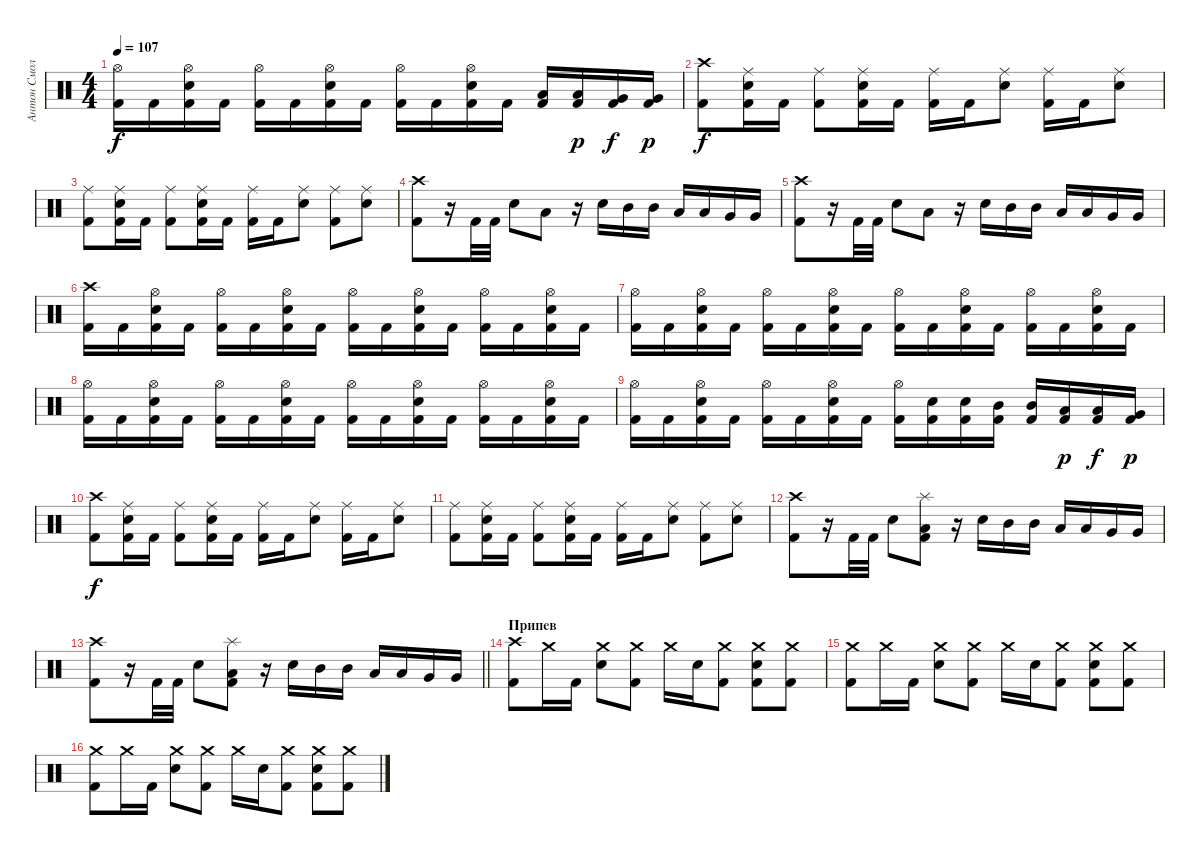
\track ("Антон Смольянин" "Антон Смол") {instrument percussion}
\staff {score}
\articulation defaults
\ts (4 4)
\tempo 107
\clef neutral
\ks c
("Hi-Hat (open)" "Kick (hit) 2").16{dy f} "Kick (hit) 2".16 ("Hi-Hat (open)" "Electric Snare (hit)" "Kick (hit) 2").16 "Kick (hit) 2".16 ("Hi-Hat (open)" "Kick (hit) 2").16 "Kick (hit) 2".16 ("Hi-Hat (open)" "Electric Snare (hit)" "Kick (hit) 2").16 "Kick (hit) 2".16 ("Hi-Hat (open)" "Kick (hit) 2").16 "Kick (hit) 2".16 ("Hi-Hat (open)" "Electric Snare (hit)" "Kick (hit) 2").16 "Kick (hit) 2".16 ("Low Tom (hit)" "Kick (hit) 2").16 ("Low Tom (hit)" "Kick (hit) 2").16{dy p} ("Very Low Tom (hit)" "Kick (hit) 2").16{dy f} ("Very Low Tom (hit)" "Kick (hit) 2").16{dy p} |
("Crash high (hit)" "Kick (hit) 2").8{dy f} ("Ride (middle)" "Electric Snare (hit)" "Kick (hit) 2").16 "Kick (hit) 2".16 ("Ride (middle)" "Kick (hit) 2").8 ("Ride (middle)" "Electric Snare (hit)" "Kick (hit) 2").16 "Kick (hit) 2".16 ("Ride (middle)" "Kick (hit) 2").16 "Kick (hit) 2".16 ("Ride (middle)" "Electric Snare (hit)").8 ("Ride (middle)" "Kick (hit) 2").16 "Kick (hit) 2".16 ("Ride (middle)" "Electric Snare (hit)").8 |
("Ride (middle)" "Kick (hit) 2").8 ("Ride (middle)" "Electric Snare (hit)" "Kick (hit) 2").16 "Kick (hit) 2".16 ("Ride (middle)" "Kick (hit) 2").8 ("Ride (middle)" "Electric Snare (hit)" "Kick (hit) 2").16 "Kick (hit) 2".16 ("Ride (middle)" "Kick (hit) 2").16 "Kick (hit) 2".16 ("Ride (middle)" "Electric Snare (hit)").8 ("Ride (middle)" "Kick (hit) 2").8 ("Ride (middle)" "Electric Snare (hit)").8 |
("Crash high (hit)" "Kick (hit) 2").8 r.16 "Kick (hit) 2".32 "Kick (hit) 2".32 "Electric Snare (hit)".8 "Low Tom (hit)".8 r.16 "Electric Snare (hit)".16 "Mid Tom (hit)".16 "Mid Tom (hit)".16 "Low Tom (hit)".16 "Low Tom (hit)".16 "Very Low Tom (hit)".16 "Very Low Tom (hit)".16 |
("Crash high (hit)" "Kick (hit) 2").8 r.16 "Kick (hit) 2".32 "Kick (hit) 2".32 "Electric Snare (hit)".8 "Low Tom (hit)".8 r.16 "Electric Snare (hit)".16 "Mid Tom (hit)".16 "Mid Tom (hit)".16 "Low Tom (hit)".16 "Low Tom (hit)".16 "Very Low Tom (hit)".16 "Very Low Tom (hit)".16 |
("Crash high (hit)" "Kick (hit) 2").16 "Kick (hit) 2".16 ("Hi-Hat (open)" "Electric Snare (hit)" "Kick (hit) 2").16 "Kick (hit) 2".16 ("Hi-Hat (open)" "Kick (hit) 2").16 "Kick (hit) 2".16 ("Hi-Hat (open)" "Electric Snare (hit)" "Kick (hit) 2").16 "Kick (hit) 2".16 ("Hi-Hat (open)" "Kick (hit) 2").16 "Kick (hit) 2".16 ("Hi-Hat (open)" "Electric Snare (hit)" "Kick (hit) 2").16 "Kick (hit) 2".16 ("Hi-Hat (open)" "Kick (hit) 2").16 "Kick (hit) 2".16 ("Hi-Hat (open)" "Electric Snare (hit)" "Kick (hit) 2").16 "Kick (hit) 2".16 |
("Hi-Hat (open)" "Kick (hit) 2").16 "Kick (hit) 2".16 ("Hi-Hat (open)" "Electric Snare (hit)" "Kick (hit) 2").16 "Kick (hit) 2".16 ("Hi-Hat (open)" "Kick (hit) 2").16 "Kick (hit) 2".16 ("Hi-Hat (open)" "Electric Snare (hit)" "Kick (hit) 2").16 "Kick (hit) 2".16 ("Hi-Hat (open)" "Kick (hit) 2").16 "Kick (hit) 2".16 ("Hi-Hat (open)" "Electric Snare (hit)" "Kick (hit) 2").16 "Kick (hit) 2".16 ("Hi-Hat (open)" "Kick (hit) 2").16 "Kick (hit) 2".16 ("Hi-Hat (open)" "Electric Snare (hit)" "Kick (hit) 2").16 "Kick (hit) 2".16 |
("Hi-Hat (open)" "Kick (hit) 2").16 "Kick (hit) 2".16 ("Hi-Hat (open)" "Electric Snare (hit)" "Kick (hit) 2").16 "Kick (hit) 2".16 ("Hi-Hat (open)" "Kick (hit) 2").16 "Kick (hit) 2".16 ("Hi-Hat (open)" "Electric Snare (hit)" "Kick (hit) 2").16 "Kick (hit) 2".16 ("Hi-Hat (open)" "Kick (hit) 2").16 "Kick (hit) 2".16 ("Hi-Hat (open)" "Electric Snare (hit)" "Kick (hit) 2").16 "Kick (hit) 2".16 ("Hi-Hat (open)" "Kick (hit) 2").16 "Kick (hit) 2".16 ("Hi-Hat (open)" "Electric Snare (hit)" "Kick (hit) 2").16 "Kick (hit) 2".16 |
("Hi-Hat (open)" "Kick (hit) 2").16 "Kick (hit) 2".16 ("Hi-Hat (open)" "Electric Snare (hit)" "Kick (hit) 2").16 "Kick (hit) 2".16 ("Hi-Hat (open)" "Kick (hit) 2").16 "Kick (hit) 2".16 ("Hi-Hat (open)" "Electric Snare (hit)" "Kick (hit) 2").16 "Kick (hit) 2".16 ("Hi-Hat (open)" "Kick (hit) 2").16 ("Electric Snare (hit)" "Kick (hit) 2").16 ("Electric Snare (hit)" "Kick (hit) 2").16 ("Mid Tom (hit)" "Kick (hit) 2").16 ("Mid Tom (hit)" "Kick (hit) 2").16 ("Low Tom (hit)" "Kick (hit) 2").16{dy p} ("Low Tom (hit)" "Kick (hit) 2").16{dy f} ("Very Low Tom (hit)" "Kick (hit) 2").16{dy p} |
("Crash high (hit)" "Kick (hit) 2").8{dy f} ("Ride (middle)" "Electric Snare (hit)" "Kick (hit) 2").16 "Kick (hit) 2".16 ("Ride (middle)" "Kick (hit) 2").8 ("Ride (middle)" "Electric Snare (hit)" "Kick (hit) 2").16 "Kick (hit) 2".16 ("Ride (middle)" "Kick (hit) 2").16 "Kick (hit) 2".16 ("Ride (middle)" "Electric Snare (hit)").8 ("Ride (middle)" "Kick (hit) 2").16 "Kick (hit) 2".16 ("Ride (middle)" "Electric Snare (hit)").8 |
("Ride (middle)" "Kick (hit) 2").8 ("Ride (middle)" "Electric Snare (hit)" "Kick (hit) 2").16 "Kick (hit) 2".16 ("Ride (middle)" "Kick (hit) 2").8 ("Ride (middle)" "Electric Snare (hit)" "Kick (hit) 2").16 "Kick (hit) 2".16 ("Ride (middle)" "Kick (hit) 2").16 "Kick (hit) 2".16 ("Ride (middle)" "Electric Snare (hit)").8 ("Ride (middle)" "Kick (hit) 2").8 ("Ride (middle)" "Electric Snare (hit)").8 |
("Crash high (hit)" "Kick (hit) 2").8 r.16 "Kick (hit) 2".32 "Kick (hit) 2".32 "Electric Snare (hit)".8 ("Splash (hit)" "Low Tom (hit)" "Kick (hit) 2").8 r.16 "Electric Snare (hit)".16 "Mid Tom (hit)".16 "Mid Tom (hit)".16 "Low Tom (hit)".16 "Low Tom (hit)".16 "Very Low Tom (hit)".16 "Very Low Tom (hit)".16 |
\barLineRight lightlight
("Crash high (hit)" "Kick (hit) 2").8 r.16 "Kick (hit) 2".32 "Kick (hit) 2".32 "Electric Snare (hit)".8 ("Splash (hit)" "Low Tom (hit)" "Kick (hit) 2").8 r.16 "Electric Snare (hit)".16 "Mid Tom (hit)".16 "Mid Tom (hit)".16 "Low Tom (hit)".16 "Low Tom (hit)".16 "Very Low Tom (hit)".16 "Very Low Tom (hit)".16 |
\section ("" "Припев")
("Crash high (hit)" "Kick (hit) 2").8 "Crash medium (hit)".16 "Kick (hit) 2".16 ("Crash medium (hit)" "Electric Snare (hit)").8 ("Crash medium (hit)" "Kick (hit) 2").8 "Crash medium (hit)".16 "Electric Snare (hit)".16 ("Crash medium (hit)" "Kick (hit) 2").8 ("Crash medium (hit)" "Electric Snare (hit)" "Kick (hit) 2").8 ("Crash medium (hit)" "Kick (hit) 2").8 |
("Crash medium (hit)" "Kick (hit) 2").8 "Crash medium (hit)".16 "Kick (hit) 2".16 ("Crash medium (hit)" "Electric Snare (hit)").8 ("Crash medium (hit)" "Kick (hit) 2").8 "Crash medium (hit)".16 "Electric Snare (hit)".16 ("Crash medium (hit)" "Kick (hit) 2").8 ("Crash medium (hit)" "Electric Snare (hit)" "Kick (hit) 2").8 ("Crash medium (hit)" "Kick (hit) 2").8 |
("Crash medium (hit)" "Kick (hit) 2").8 "Crash medium (hit)".16 "Kick (hit) 2".16 ("Crash medium (hit)" "Electric Snare (hit)").8 ("Crash medium (hit)" "Kick (hit) 2").8 "Crash medium (hit)".16 "Electric Snare (hit)".16 ("Crash medium (hit)" "Kick (hit) 2").8 ("Crash medium (hit)" "Electric Snare (hit)" "Kick (hit) 2").8 ("Crash medium (hit)" "Kick (hit) 2").8
